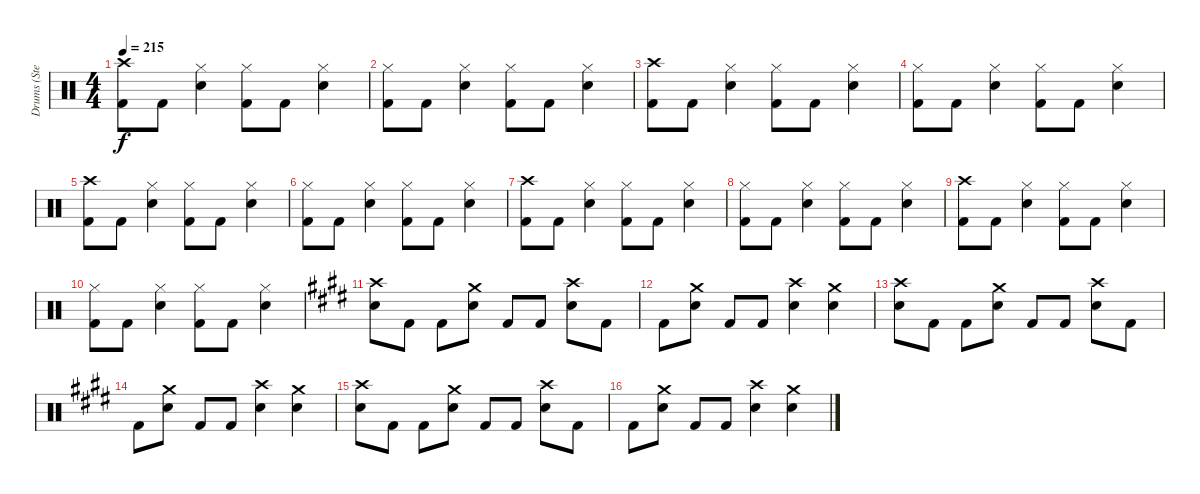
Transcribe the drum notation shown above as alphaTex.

\track ("Drums (Steven)" "Drums (Ste") {instrument percussion}
\staff {score}
\articulation defaults
\ts (4 4)
\tempo 215
\clef neutral
\ks c
("Crash high (hit)" "Kick (hit) 2").8{dy f} "Kick (hit) 2".8 ("Hi-Hat (closed)" "Snare (hit) 2").4 ("Hi-Hat (closed)" "Kick (hit) 2").8 "Kick (hit) 2".8 ("Hi-Hat (closed)" "Snare (hit) 2").4 |
("Hi-Hat (closed)" "Kick (hit) 2").8 "Kick (hit) 2".8 ("Hi-Hat (closed)" "Snare (hit) 2").4 ("Hi-Hat (closed)" "Kick (hit) 2").8 "Kick (hit) 2".8 ("Hi-Hat (closed)" "Snare (hit) 2").4 |
("Crash high (hit)" "Kick (hit) 2").8 "Kick (hit) 2".8 ("Hi-Hat (closed)" "Snare (hit) 2").4 ("Hi-Hat (closed)" "Kick (hit) 2").8 "Kick (hit) 2".8 ("Hi-Hat (closed)" "Snare (hit) 2").4 |
("Hi-Hat (closed)" "Kick (hit) 2").8 "Kick (hit) 2".8 ("Hi-Hat (closed)" "Snare (hit) 2").4 ("Hi-Hat (closed)" "Kick (hit) 2").8 "Kick (hit) 2".8 ("Hi-Hat (closed)" "Snare (hit) 2").4 |
("Crash high (hit)" "Kick (hit) 2").8 "Kick (hit) 2".8 ("Hi-Hat (closed)" "Snare (hit) 2").4 ("Hi-Hat (closed)" "Kick (hit) 2").8 "Kick (hit) 2".8 ("Hi-Hat (closed)" "Snare (hit) 2").4 |
("Hi-Hat (closed)" "Kick (hit) 2").8 "Kick (hit) 2".8 ("Hi-Hat (closed)" "Snare (hit) 2").4 ("Hi-Hat (closed)" "Kick (hit) 2").8 "Kick (hit) 2".8 ("Hi-Hat (closed)" "Snare (hit) 2").4 |
("Crash high (hit)" "Kick (hit) 2").8 "Kick (hit) 2".8 ("Hi-Hat (closed)" "Snare (hit) 2").4 ("Hi-Hat (closed)" "Kick (hit) 2").8 "Kick (hit) 2".8 ("Hi-Hat (closed)" "Snare (hit) 2").4 |
("Hi-Hat (closed)" "Kick (hit) 2").8 "Kick (hit) 2".8 ("Hi-Hat (closed)" "Snare (hit) 2").4 ("Hi-Hat (closed)" "Kick (hit) 2").8 "Kick (hit) 2".8 ("Hi-Hat (closed)" "Snare (hit) 2").4 |
("Crash high (hit)" "Kick (hit) 2").8 "Kick (hit) 2".8 ("Hi-Hat (closed)" "Snare (hit) 2").4 ("Hi-Hat (closed)" "Kick (hit) 2").8 "Kick (hit) 2".8 ("Hi-Hat (closed)" "Snare (hit) 2").4 |
("Hi-Hat (closed)" "Kick (hit) 2").8 "Kick (hit) 2".8 ("Hi-Hat (closed)" "Snare (hit) 2").4 ("Hi-Hat (closed)" "Kick (hit) 2").8 "Kick (hit) 2".8 ("Hi-Hat (closed)" "Snare (hit) 2").4 |
\ks e
("Crash high (hit)" "Snare (hit) 2").8 "Kick (hit) 2".8 "Kick (hit) 2".8 ("Crash medium (hit)" "Snare (hit) 2").8 "Kick (hit) 2".8 "Kick (hit) 2".8 ("Crash high (hit)" "Snare (hit) 2").8 "Kick (hit) 2".8 |
"Kick (hit) 2".8 ("Crash medium (hit)" "Snare (hit) 2").8 "Kick (hit) 2".8 "Kick (hit) 2".8 ("Crash high (hit)" "Snare (hit) 2").4 ("Crash medium (hit)" "Snare (hit) 2").4 |
("Crash high (hit)" "Snare (hit) 2").8 "Kick (hit) 2".8 "Kick (hit) 2".8 ("Crash medium (hit)" "Snare (hit) 2").8 "Kick (hit) 2".8 "Kick (hit) 2".8 ("Crash high (hit)" "Snare (hit) 2").8 "Kick (hit) 2".8 |
"Kick (hit) 2".8 ("Crash medium (hit)" "Snare (hit) 2").8 "Kick (hit) 2".8 "Kick (hit) 2".8 ("Crash high (hit)" "Snare (hit) 2").4 ("Crash medium (hit)" "Snare (hit) 2").4 |
("Crash high (hit)" "Snare (hit) 2").8 "Kick (hit) 2".8 "Kick (hit) 2".8 ("Crash medium (hit)" "Snare (hit) 2").8 "Kick (hit) 2".8 "Kick (hit) 2".8 ("Crash high (hit)" "Snare (hit) 2").8 "Kick (hit) 2".8 |
"Kick (hit) 2".8 ("Crash medium (hit)" "Snare (hit) 2").8 "Kick (hit) 2".8 "Kick (hit) 2".8 ("Crash high (hit)" "Snare (hit) 2").4 ("Crash medium (hit)" "Snare (hit) 2").4
